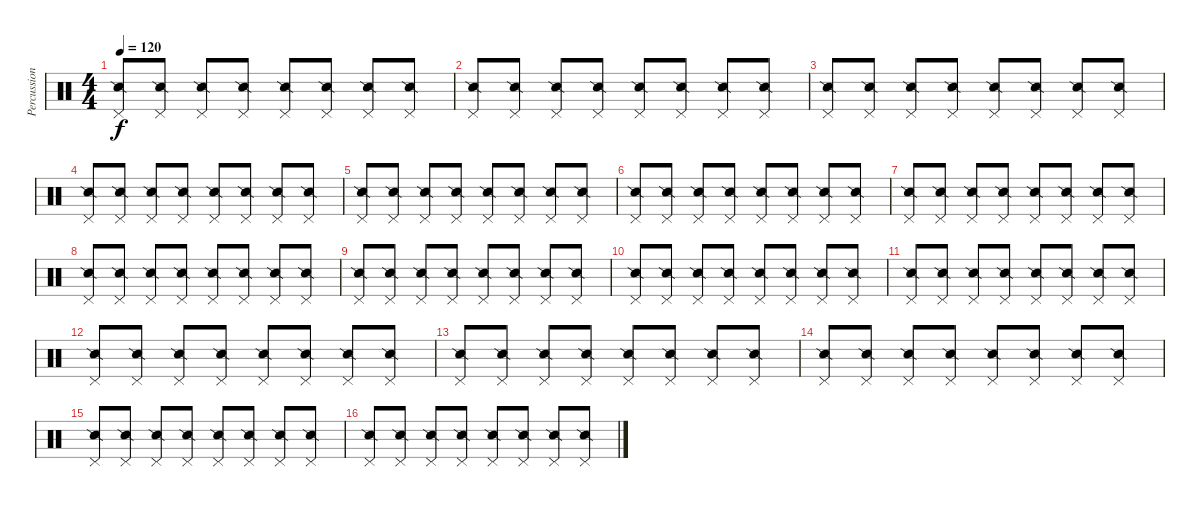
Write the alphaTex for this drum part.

\track ("Percussion" "Percussion") {instrument percussion}
\staff {score}
\articulation defaults
\ts (4 4)
\tempo 120
\clef neutral
\ks c
("Pedal Hi-Hat (hit)" "Snare (side stick) 2").8{dy f} ("Pedal Hi-Hat (hit)" "Snare (side stick) 2").8 ("Pedal Hi-Hat (hit)" "Snare (side stick) 2").8 ("Pedal Hi-Hat (hit)" "Snare (side stick) 2").8 ("Pedal Hi-Hat (hit)" "Snare (side stick) 2").8 ("Pedal Hi-Hat (hit)" "Snare (side stick) 2").8 ("Pedal Hi-Hat (hit)" "Snare (side stick) 2").8 ("Pedal Hi-Hat (hit)" "Snare (side stick) 2").8 |
("Pedal Hi-Hat (hit)" "Snare (side stick) 2").8 ("Pedal Hi-Hat (hit)" "Snare (side stick) 2").8 ("Pedal Hi-Hat (hit)" "Snare (side stick) 2").8 ("Pedal Hi-Hat (hit)" "Snare (side stick) 2").8 ("Pedal Hi-Hat (hit)" "Snare (side stick) 2").8 ("Pedal Hi-Hat (hit)" "Snare (side stick) 2").8 ("Pedal Hi-Hat (hit)" "Snare (side stick) 2").8 ("Pedal Hi-Hat (hit)" "Snare (side stick) 2").8 |
("Pedal Hi-Hat (hit)" "Snare (side stick) 2").8 ("Pedal Hi-Hat (hit)" "Snare (side stick) 2").8 ("Pedal Hi-Hat (hit)" "Snare (side stick) 2").8 ("Pedal Hi-Hat (hit)" "Snare (side stick) 2").8 ("Pedal Hi-Hat (hit)" "Snare (side stick) 2").8 ("Pedal Hi-Hat (hit)" "Snare (side stick) 2").8 ("Pedal Hi-Hat (hit)" "Snare (side stick) 2").8 ("Pedal Hi-Hat (hit)" "Snare (side stick) 2").8 |
("Pedal Hi-Hat (hit)" "Snare (side stick) 2").8 ("Pedal Hi-Hat (hit)" "Snare (side stick) 2").8 ("Pedal Hi-Hat (hit)" "Snare (side stick) 2").8 ("Pedal Hi-Hat (hit)" "Snare (side stick) 2").8 ("Pedal Hi-Hat (hit)" "Snare (side stick) 2").8 ("Pedal Hi-Hat (hit)" "Snare (side stick) 2").8 ("Pedal Hi-Hat (hit)" "Snare (side stick) 2").8 ("Pedal Hi-Hat (hit)" "Snare (side stick) 2").8 |
("Pedal Hi-Hat (hit)" "Snare (side stick) 2").8 ("Pedal Hi-Hat (hit)" "Snare (side stick) 2").8 ("Pedal Hi-Hat (hit)" "Snare (side stick) 2").8 ("Pedal Hi-Hat (hit)" "Snare (side stick) 2").8 ("Pedal Hi-Hat (hit)" "Snare (side stick) 2").8 ("Pedal Hi-Hat (hit)" "Snare (side stick) 2").8 ("Pedal Hi-Hat (hit)" "Snare (side stick) 2").8 ("Pedal Hi-Hat (hit)" "Snare (side stick) 2").8 |
("Pedal Hi-Hat (hit)" "Snare (side stick) 2").8 ("Pedal Hi-Hat (hit)" "Snare (side stick) 2").8 ("Pedal Hi-Hat (hit)" "Snare (side stick) 2").8 ("Pedal Hi-Hat (hit)" "Snare (side stick) 2").8 ("Pedal Hi-Hat (hit)" "Snare (side stick) 2").8 ("Pedal Hi-Hat (hit)" "Snare (side stick) 2").8 ("Pedal Hi-Hat (hit)" "Snare (side stick) 2").8 ("Pedal Hi-Hat (hit)" "Snare (side stick) 2").8 |
("Pedal Hi-Hat (hit)" "Snare (side stick) 2").8 ("Pedal Hi-Hat (hit)" "Snare (side stick) 2").8 ("Pedal Hi-Hat (hit)" "Snare (side stick) 2").8 ("Pedal Hi-Hat (hit)" "Snare (side stick) 2").8 ("Pedal Hi-Hat (hit)" "Snare (side stick) 2").8 ("Pedal Hi-Hat (hit)" "Snare (side stick) 2").8 ("Pedal Hi-Hat (hit)" "Snare (side stick) 2").8 ("Pedal Hi-Hat (hit)" "Snare (side stick) 2").8 |
("Pedal Hi-Hat (hit)" "Snare (side stick) 2").8 ("Pedal Hi-Hat (hit)" "Snare (side stick) 2").8 ("Pedal Hi-Hat (hit)" "Snare (side stick) 2").8 ("Pedal Hi-Hat (hit)" "Snare (side stick) 2").8 ("Pedal Hi-Hat (hit)" "Snare (side stick) 2").8 ("Pedal Hi-Hat (hit)" "Snare (side stick) 2").8 ("Pedal Hi-Hat (hit)" "Snare (side stick) 2").8 ("Pedal Hi-Hat (hit)" "Snare (side stick) 2").8 |
("Pedal Hi-Hat (hit)" "Snare (side stick) 2").8 ("Pedal Hi-Hat (hit)" "Snare (side stick) 2").8 ("Pedal Hi-Hat (hit)" "Snare (side stick) 2").8 ("Pedal Hi-Hat (hit)" "Snare (side stick) 2").8 ("Pedal Hi-Hat (hit)" "Snare (side stick) 2").8 ("Pedal Hi-Hat (hit)" "Snare (side stick) 2").8 ("Pedal Hi-Hat (hit)" "Snare (side stick) 2").8 ("Pedal Hi-Hat (hit)" "Snare (side stick) 2").8 |
("Pedal Hi-Hat (hit)" "Snare (side stick) 2").8 ("Pedal Hi-Hat (hit)" "Snare (side stick) 2").8 ("Pedal Hi-Hat (hit)" "Snare (side stick) 2").8 ("Pedal Hi-Hat (hit)" "Snare (side stick) 2").8 ("Pedal Hi-Hat (hit)" "Snare (side stick) 2").8 ("Pedal Hi-Hat (hit)" "Snare (side stick) 2").8 ("Pedal Hi-Hat (hit)" "Snare (side stick) 2").8 ("Pedal Hi-Hat (hit)" "Snare (side stick) 2").8 |
("Pedal Hi-Hat (hit)" "Snare (side stick) 2").8 ("Pedal Hi-Hat (hit)" "Snare (side stick) 2").8 ("Pedal Hi-Hat (hit)" "Snare (side stick) 2").8 ("Pedal Hi-Hat (hit)" "Snare (side stick) 2").8 ("Pedal Hi-Hat (hit)" "Snare (side stick) 2").8 ("Pedal Hi-Hat (hit)" "Snare (side stick) 2").8 ("Pedal Hi-Hat (hit)" "Snare (side stick) 2").8 ("Pedal Hi-Hat (hit)" "Snare (side stick) 2").8 |
("Pedal Hi-Hat (hit)" "Snare (side stick) 2").8 ("Pedal Hi-Hat (hit)" "Snare (side stick) 2").8 ("Pedal Hi-Hat (hit)" "Snare (side stick) 2").8 ("Pedal Hi-Hat (hit)" "Snare (side stick) 2").8 ("Pedal Hi-Hat (hit)" "Snare (side stick) 2").8 ("Pedal Hi-Hat (hit)" "Snare (side stick) 2").8 ("Pedal Hi-Hat (hit)" "Snare (side stick) 2").8 ("Pedal Hi-Hat (hit)" "Snare (side stick) 2").8 |
("Pedal Hi-Hat (hit)" "Snare (side stick) 2").8 ("Pedal Hi-Hat (hit)" "Snare (side stick) 2").8 ("Pedal Hi-Hat (hit)" "Snare (side stick) 2").8 ("Pedal Hi-Hat (hit)" "Snare (side stick) 2").8 ("Pedal Hi-Hat (hit)" "Snare (side stick) 2").8 ("Pedal Hi-Hat (hit)" "Snare (side stick) 2").8 ("Pedal Hi-Hat (hit)" "Snare (side stick) 2").8 ("Pedal Hi-Hat (hit)" "Snare (side stick) 2").8 |
("Pedal Hi-Hat (hit)" "Snare (side stick) 2").8 ("Pedal Hi-Hat (hit)" "Snare (side stick) 2").8 ("Pedal Hi-Hat (hit)" "Snare (side stick) 2").8 ("Pedal Hi-Hat (hit)" "Snare (side stick) 2").8 ("Pedal Hi-Hat (hit)" "Snare (side stick) 2").8 ("Pedal Hi-Hat (hit)" "Snare (side stick) 2").8 ("Pedal Hi-Hat (hit)" "Snare (side stick) 2").8 ("Pedal Hi-Hat (hit)" "Snare (side stick) 2").8 |
("Pedal Hi-Hat (hit)" "Snare (side stick) 2").8 ("Pedal Hi-Hat (hit)" "Snare (side stick) 2").8 ("Pedal Hi-Hat (hit)" "Snare (side stick) 2").8 ("Pedal Hi-Hat (hit)" "Snare (side stick) 2").8 ("Pedal Hi-Hat (hit)" "Snare (side stick) 2").8 ("Pedal Hi-Hat (hit)" "Snare (side stick) 2").8 ("Pedal Hi-Hat (hit)" "Snare (side stick) 2").8 ("Pedal Hi-Hat (hit)" "Snare (side stick) 2").8 |
("Pedal Hi-Hat (hit)" "Snare (side stick) 2").8 ("Pedal Hi-Hat (hit)" "Snare (side stick) 2").8 ("Pedal Hi-Hat (hit)" "Snare (side stick) 2").8 ("Pedal Hi-Hat (hit)" "Snare (side stick) 2").8 ("Pedal Hi-Hat (hit)" "Snare (side stick) 2").8 ("Pedal Hi-Hat (hit)" "Snare (side stick) 2").8 ("Pedal Hi-Hat (hit)" "Snare (side stick) 2").8 ("Pedal Hi-Hat (hit)" "Snare (side stick) 2").8
